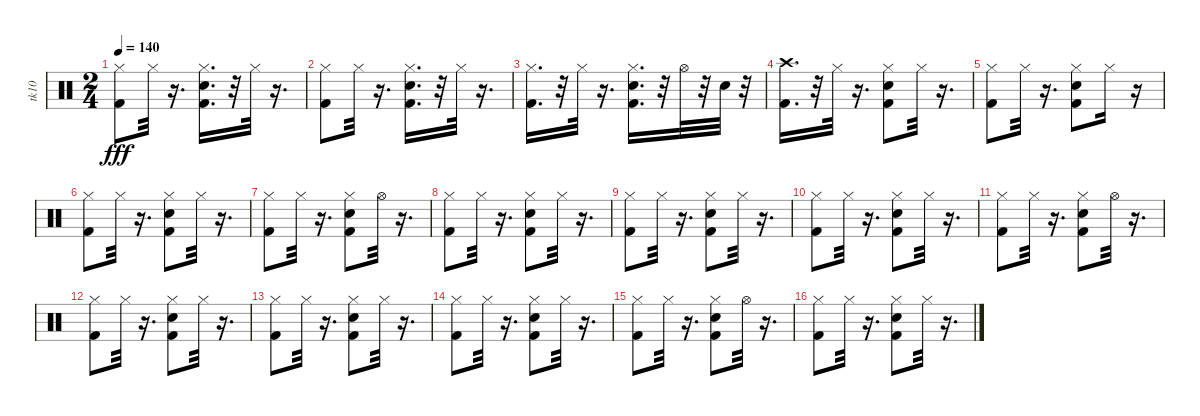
\track ("tk10" "tk10") {instrument percussion}
\staff {score}
\articulation defaults
\ts (2 4)
\tempo 140
\clef neutral
\ks c
("Kick (hit) 2" "Hi-Hat (closed)").8{dy fff} "Hi-Hat (closed)".32 r.16{d} ("Kick (hit) 2" "Hi-Hat (closed)" "Snare (hit) 2").16{d} r.32 "Hi-Hat (closed)".32 r.16{d} |
("Kick (hit) 2" "Hi-Hat (closed)").8 "Hi-Hat (closed)".32 r.16{d} ("Kick (hit) 2" "Hi-Hat (closed)" "Snare (hit) 2").16{d} r.32 "Hi-Hat (closed)".32 r.16{d} |
("Kick (hit) 2" "Hi-Hat (closed)").16{d} r.32 "Hi-Hat (closed)".32 r.16{d} ("Hi-Hat (closed)" "Snare (hit) 2" "Kick (hit) 2").16{d} r.32 "Hi-Hat (open)".32 r.32 "Snare (hit) 2".32 r.32 |
("Kick (hit) 2" "Crash high (hit)").16{d} r.32 "Hi-Hat (closed)".32 r.16{d} ("Kick (hit) 2" "Snare (hit) 2" "Hi-Hat (closed)").8 "Hi-Hat (closed)".32 r.16{d} |
("Kick (hit) 2" "Hi-Hat (closed)").8 "Hi-Hat (closed)".32 r.16{d} ("Kick (hit) 2" "Hi-Hat (closed)" "Snare (hit) 2").8 "Hi-Hat (closed)".16 r.16 |
("Kick (hit) 2" "Hi-Hat (closed)").8 "Hi-Hat (closed)".32 r.16{d} ("Snare (hit) 2" "Kick (hit) 2" "Hi-Hat (closed)").8 "Hi-Hat (closed)".32 r.16{d} |
("Kick (hit) 2" "Hi-Hat (closed)").8 "Hi-Hat (closed)".32 r.16{d} ("Kick (hit) 2" "Snare (hit) 2" "Hi-Hat (closed)").8 "Hi-Hat (open)".32 r.16{d} |
("Kick (hit) 2" "Hi-Hat (closed)").8 "Hi-Hat (closed)".32 r.16{d} ("Snare (hit) 2" "Kick (hit) 2" "Hi-Hat (closed)").8 "Hi-Hat (closed)".32 r.16{d} |
("Kick (hit) 2" "Hi-Hat (closed)").8 "Hi-Hat (closed)".32 r.16{d} ("Snare (hit) 2" "Kick (hit) 2" "Hi-Hat (closed)").8 "Hi-Hat (closed)".32 r.16{d} |
("Kick (hit) 2" "Hi-Hat (closed)").8 "Hi-Hat (closed)".32 r.16{d} ("Snare (hit) 2" "Kick (hit) 2" "Hi-Hat (closed)").8 "Hi-Hat (closed)".32 r.16{d} |
("Kick (hit) 2" "Hi-Hat (closed)").8 "Hi-Hat (closed)".32 r.16{d} ("Snare (hit) 2" "Kick (hit) 2" "Hi-Hat (closed)").8 "Hi-Hat (open)".32 r.16{d} |
("Kick (hit) 2" "Hi-Hat (closed)").8 "Hi-Hat (closed)".32 r.16{d} ("Snare (hit) 2" "Kick (hit) 2" "Hi-Hat (closed)").8 "Hi-Hat (closed)".32 r.16{d} |
("Kick (hit) 2" "Hi-Hat (closed)").8 "Hi-Hat (closed)".32 r.16{d} ("Snare (hit) 2" "Kick (hit) 2" "Hi-Hat (closed)").8 "Hi-Hat (closed)".32 r.16{d} |
("Kick (hit) 2" "Hi-Hat (closed)").8 "Hi-Hat (closed)".32 r.16{d} ("Snare (hit) 2" "Kick (hit) 2" "Hi-Hat (closed)").8 "Hi-Hat (closed)".32 r.16{d} |
("Kick (hit) 2" "Hi-Hat (closed)").8 "Hi-Hat (closed)".32 r.16{d} ("Hi-Hat (closed)" "Snare (hit) 2" "Kick (hit) 2").8 "Hi-Hat (open)".32 r.16{d} |
("Kick (hit) 2" "Hi-Hat (closed)").8 "Hi-Hat (closed)".32 r.16{d} ("Snare (hit) 2" "Kick (hit) 2" "Hi-Hat (closed)").8 "Hi-Hat (closed)".32 r.16{d}
